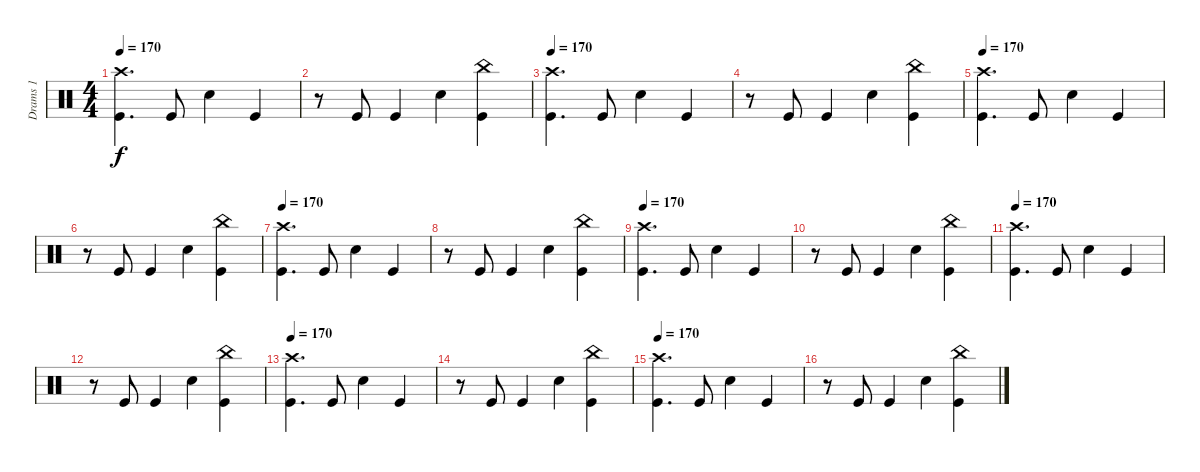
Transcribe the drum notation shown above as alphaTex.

\track ("Drams 1" "Drams 1") {instrument percussion}
\staff {score}
\articulation defaults
\ts (4 4)
\tempo 170
\clef neutral
\ks c
("Crash high (hit)" "Kick (hit)").4{d dy f} "Kick (hit)".8 "Snare (hit) 2".4 "Kick (hit)".4 |
r.8 "Kick (hit)".8 "Kick (hit)".4 "Snare (hit) 2".4 ("Kick (hit)" "China (hit)").4 |
\tempo 170
("Crash high (hit)" "Kick (hit)").4{d} "Kick (hit)".8 "Snare (hit) 2".4 "Kick (hit)".4 |
r.8 "Kick (hit)".8 "Kick (hit)".4 "Snare (hit) 2".4 ("Kick (hit)" "China (hit)").4 |
\tempo 170
("Crash high (hit)" "Kick (hit)").4{d} "Kick (hit)".8 "Snare (hit) 2".4 "Kick (hit)".4 |
r.8 "Kick (hit)".8 "Kick (hit)".4 "Snare (hit) 2".4 ("Kick (hit)" "China (hit)").4 |
\tempo 170
("Crash high (hit)" "Kick (hit)").4{d} "Kick (hit)".8 "Snare (hit) 2".4 "Kick (hit)".4 |
r.8 "Kick (hit)".8 "Kick (hit)".4 "Snare (hit) 2".4 ("Kick (hit)" "China (hit)").4 |
\tempo 170
("Crash high (hit)" "Kick (hit)").4{d} "Kick (hit)".8 "Snare (hit) 2".4 "Kick (hit)".4 |
r.8 "Kick (hit)".8 "Kick (hit)".4 "Snare (hit) 2".4 ("Kick (hit)" "China (hit)").4 |
\tempo 170
("Crash high (hit)" "Kick (hit)").4{d} "Kick (hit)".8 "Snare (hit) 2".4 "Kick (hit)".4 |
r.8 "Kick (hit)".8 "Kick (hit)".4 "Snare (hit) 2".4 ("Kick (hit)" "China (hit)").4 |
\tempo 170
("Crash high (hit)" "Kick (hit)").4{d} "Kick (hit)".8 "Snare (hit) 2".4 "Kick (hit)".4 |
r.8 "Kick (hit)".8 "Kick (hit)".4 "Snare (hit) 2".4 ("Kick (hit)" "China (hit)").4 |
\tempo 170
("Crash high (hit)" "Kick (hit)").4{d} "Kick (hit)".8 "Snare (hit) 2".4 "Kick (hit)".4 |
r.8 "Kick (hit)".8 "Kick (hit)".4 "Snare (hit) 2".4 ("Kick (hit)" "China (hit)").4
